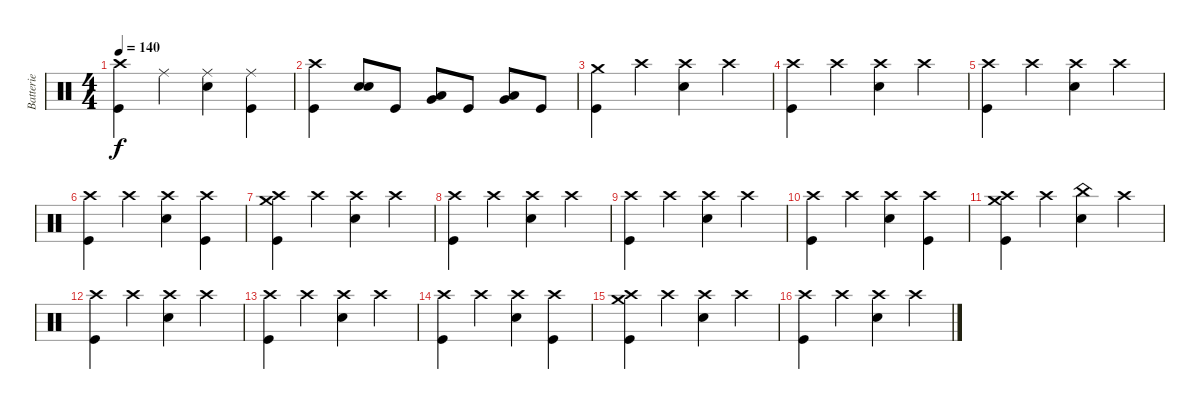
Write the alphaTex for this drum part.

\track ("Batterie" "Batterie") {instrument percussion}
\staff {score}
\articulation defaults
\ts (4 4)
\tempo 140
\clef neutral
\ks c
("Crash high (hit)" "Kick (hit)").4{dy f} "Ride (middle)".4 ("Ride (middle)" "Electric Snare (hit)").4 ("Ride (middle)" "Kick (hit)").4 |
("Crash high (hit)" "Kick (hit)").4 ("Electric Snare (hit)" "Electric Snare (hit)").8{bd 120} "Kick (hit)".8 ("Low Tom (hit)" "Very Low Tom (hit)").8 "Kick (hit)".8 ("Very Low Tom (hit)" "Low Floor Tom (hit)").8 "Kick (hit)".8 |
("Crash medium (hit)" "Kick (hit)").4 "Crash high (hit)".4 ("Crash high (hit)" "Electric Snare (hit)").4 "Crash high (hit)".4 |
("Crash high (hit)" "Kick (hit)").4 "Crash high (hit)".4 ("Crash high (hit)" "Electric Snare (hit)").4 "Crash high (hit)".4 |
("Crash high (hit)" "Kick (hit)").4 "Crash high (hit)".4 ("Crash high (hit)" "Electric Snare (hit)").4 "Crash high (hit)".4 |
("Crash high (hit)" "Kick (hit)").4 "Crash high (hit)".4 ("Crash high (hit)" "Electric Snare (hit)").4 ("Crash high (hit)" "Kick (hit)").4 |
("Crash medium (hit)" "Crash high (hit)" "Kick (hit)").4 "Crash high (hit)".4 ("Crash high (hit)" "Electric Snare (hit)").4 "Crash high (hit)".4 |
("Crash high (hit)" "Kick (hit)").4 "Crash high (hit)".4 ("Crash high (hit)" "Electric Snare (hit)").4 "Crash high (hit)".4 |
("Crash high (hit)" "Kick (hit)").4 "Crash high (hit)".4 ("Crash high (hit)" "Electric Snare (hit)").4 "Crash high (hit)".4 |
("Crash high (hit)" "Kick (hit)").4 "Crash high (hit)".4 ("Crash high (hit)" "Electric Snare (hit)").4 ("Crash high (hit)" "Kick (hit)").4 |
("Crash medium (hit)" "Crash high (hit)" "Kick (hit)").4 "Crash high (hit)".4 ("China (hit)" "Electric Snare (hit)").4 "Crash high (hit)".4 |
("Crash high (hit)" "Kick (hit)").4 "Crash high (hit)".4 ("Crash high (hit)" "Electric Snare (hit)").4 "Crash high (hit)".4 |
("Crash high (hit)" "Kick (hit)").4 "Crash high (hit)".4 ("Crash high (hit)" "Electric Snare (hit)").4 "Crash high (hit)".4 |
("Crash high (hit)" "Kick (hit)").4 "Crash high (hit)".4 ("Crash high (hit)" "Electric Snare (hit)").4 ("Crash high (hit)" "Kick (hit)").4 |
("Crash medium (hit)" "Crash high (hit)" "Kick (hit)").4 "Crash high (hit)".4 ("Crash high (hit)" "Electric Snare (hit)").4 "Crash high (hit)".4 |
("Crash high (hit)" "Kick (hit)").4 "Crash high (hit)".4 ("Crash high (hit)" "Electric Snare (hit)").4 "Crash high (hit)".4
